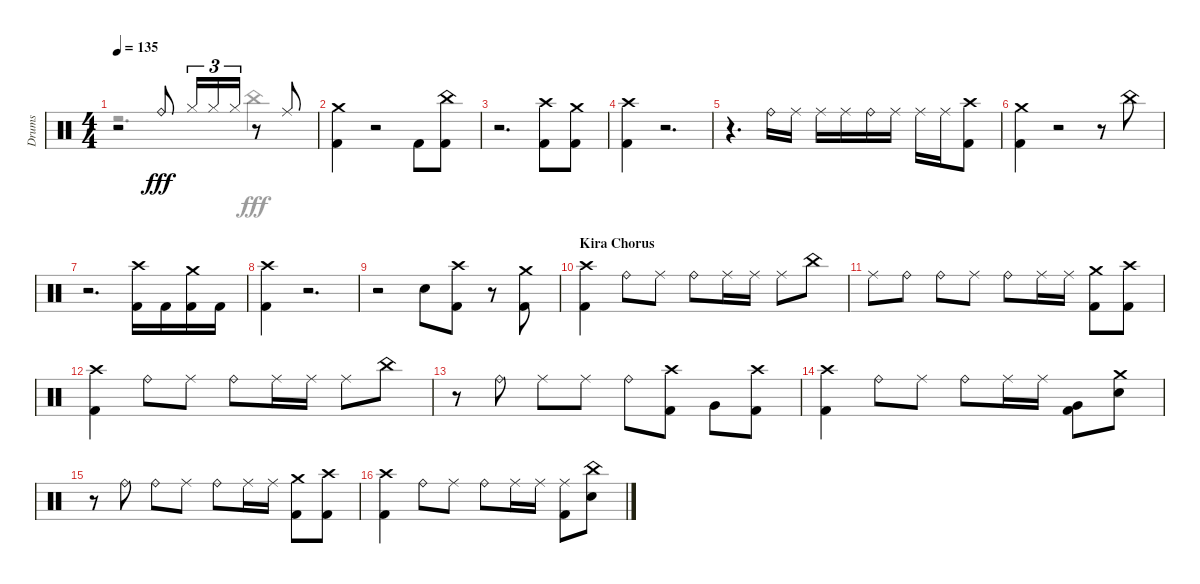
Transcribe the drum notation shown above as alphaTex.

\track ("Drums" "Drums") {instrument percussion}
\staff {score}
\articulation defaults
\voice
\ts (4 4)
\tempo 135
\clef neutral
\ks aminor
r.2{dy fff} "Ride (bell)".8 "Hi-Hat (closed)".16{tu (3 2)} "Hi-Hat (closed)".16{tu (3 2)} "Hi-Hat (closed)".16{tu (3 2)} r.8 "Ride (middle)".8 |
("Kick (hit) 2" "Crash medium (hit)").4 r.2 "Kick (hit) 2".8 ("China (hit)" "Kick (hit) 2").8 |
r.2{d} ("Crash high (hit)" "Kick (hit) 2").8 ("Crash medium (hit)" "Kick (hit) 2").8 |
("Crash high (hit)" "Kick (hit) 2").4 r.2{d} |
r.4{d} "Ride (bell)".16 "Ride (middle)".16 "Ride (middle)".16 "Ride (middle)".16 "Ride (bell)".16 "Ride (middle)".16 "Ride (middle)".16 "Ride (middle)".16 ("Crash high (hit)" "Kick (hit) 2").8 |
("Crash medium (hit)" "Kick (hit) 2").4 r.2 r.8 "China (hit)".8 |
r.2{d} ("Kick (hit) 2" "Crash high (hit)").16 "Kick (hit) 2".16 ("Kick (hit) 2" "Crash medium (hit)").16 "Kick (hit) 2".16 |
("Kick (hit) 2" "Crash high (hit)").4 r.2{d} |
r.2 "Snare (hit) 2".8 ("Kick (hit) 2" "Crash high (hit)").8 r.8 ("Kick (hit) 2" "Crash medium (hit)").8 |
\section ("" "Kira Chorus")
("Kick (hit) 2" "Crash high (hit)").4 "Ride (bell)".8 "Ride (middle)".8 "Ride (bell)".8 "Ride (middle)".16 "Ride (middle)".16 "Ride (middle)".8 "China (hit)".8 |
"Ride (middle)".8 "Ride (bell)".8 "Ride (bell)".8 "Ride (middle)".8 "Ride (bell)".8 "Ride (middle)".16 "Ride (middle)".16 ("Kick (hit) 2" "Crash medium (hit)").8 ("Kick (hit) 2" "Crash high (hit)").8 |
("Crash high (hit)" "Kick (hit) 2").4 "Ride (bell)".8 "Ride (middle)".8 "Ride (bell)".8 "Ride (middle)".16 "Ride (middle)".16 "Ride (middle)".8 "China (hit)".8 |
r.8 "Ride (bell)".8 "Ride (middle)".8 "Ride (middle)".8 "Ride (bell)".8 ("Kick (hit) 2" "Crash high (hit)").8 "Very Low Tom (hit)".8 ("Kick (hit) 2" "Crash high (hit)").8 |
("Kick (hit) 2" "Crash high (hit)").4 "Ride (bell)".8 "Ride (middle)".8 "Ride (bell)".8 "Ride (middle)".16 "Ride (middle)".16 ("Very Low Tom (hit)" "Kick (hit) 2").8 ("Snare (hit) 2" "Crash medium (hit)").8 |
r.8 "Ride (bell)".8 "Ride (bell)".8 "Ride (middle)".8 "Ride (bell)".8 "Ride (middle)".16 "Ride (middle)".16 ("Kick (hit) 2" "Crash medium (hit)").8 ("Crash high (hit)" "Kick (hit) 2").8 |
("Crash high (hit)" "Kick (hit) 2").4 "Ride (bell)".8 "Ride (middle)".8 "Ride (bell)".8 "Ride (middle)".16 "Ride (middle)".16 ("Ride (middle)" "Kick (hit) 2").8 ("Snare (hit) 2" "China (hit)").8
\voice
\clef neutral
\ottava regular
\simile none
\ks aminor
r.2{d dy fff} "China (hit)".4 |
|
|
|
|
|
|
|
|
|
|
|
|
|
|
